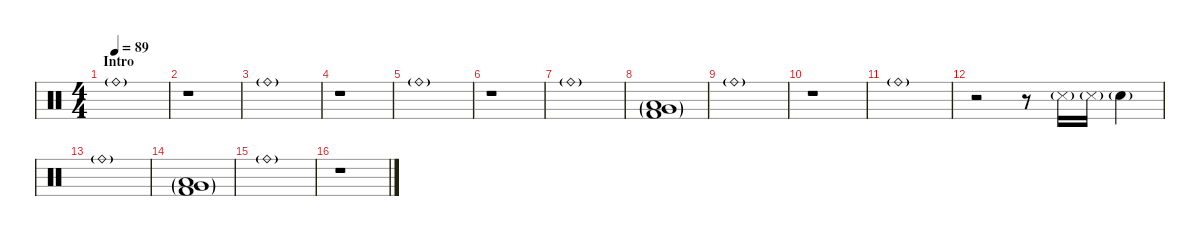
\defaultSystemsLayout 4
\hideDynamics
\bracketExtendMode nobrackets
\singleTrackTrackNamePolicy hidden
\multiTrackTrackNamePolicy hidden
\otherSystemsTrackNameOrientation horizontal
\track ("Drums" "drm.") {instrument percussion}
\staff {score}
\articulation defaults
\ts (4 4)
\beaming (8 2 2 2 2)
\section ("" "Intro")
\tempo 89
\clef neutral
\ks c "Ride (bell)"{g}.1{dy mf beam Down}
|
r.1{beam Down} |
"Ride (bell)"{g}.1{beam Down} |
r.1{beam Down} |
"Ride (bell)"{g}.1{beam Down} |
r.1{beam Down} |
"Ride (bell)"{g}.1{beam Down} |
("Very Low Tom (hit)"{g} "Low Floor Tom (hit)"{g} "Kick (hit) 2"{g}).1{dy ff beam Up} |
"Ride (bell)"{g}.1{dy mf beam Down} |
r.1{beam Down} |
"Ride (bell)"{g}.1{beam Down} |
r.2{beam Down} r.8{beam Down} "Snare (side stick) 3"{g}.16{dy f beam Down} "Snare (side stick) 3"{g}.16{beam Down} "Hand Clap (hit)"{g}.4{beam Down} |
"Ride (bell)"{g}.1{dy mf beam Down} |
("Very Low Tom (hit)"{g} "Low Floor Tom (hit)"{g} "Kick (hit) 2"{g}).1{dy ff beam Up} |
"Ride (bell)"{g}.1{dy mf beam Down} |
r.1{beam Down}
